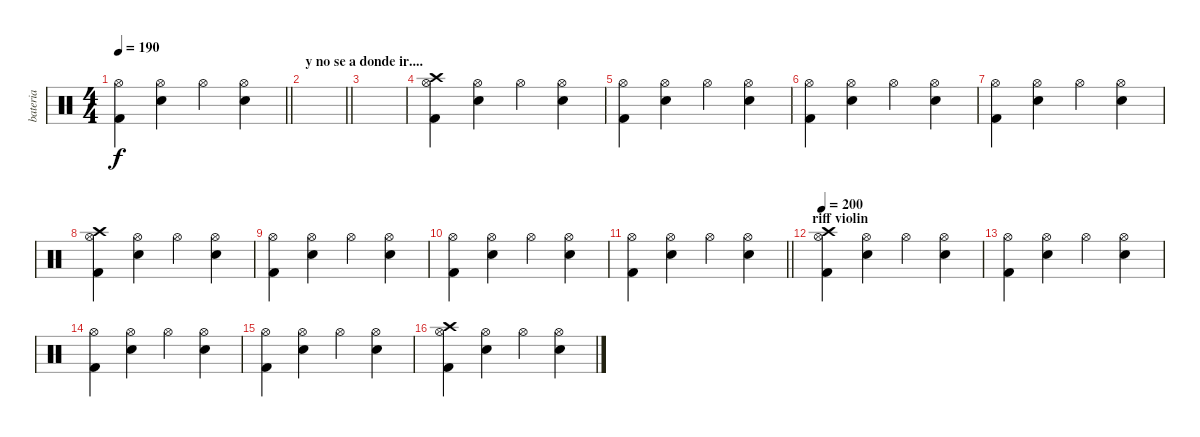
\track ("bateria" "bateria") {instrument percussion}
\staff {score}
\articulation defaults
\ts (4 4)
\tempo 190
\clef neutral
\barLineRight lightlight
\ks c
("Hi-Hat (open)" "Kick (hit) 2").4{dy f} ("Hi-Hat (open)" "Electric Snare (hit)").4 "Hi-Hat (open)".4 ("Hi-Hat (open)" "Electric Snare (hit)").4 |
\section ("" "y no se a donde ir....")
\barLineRight lightlight
|
|
("Hi-Hat (open)" "Kick (hit) 2" "Crash high (hit)").4 ("Hi-Hat (open)" "Electric Snare (hit)").4 "Hi-Hat (open)".4 ("Hi-Hat (open)" "Electric Snare (hit)").4 |
("Hi-Hat (open)" "Kick (hit) 2").4 ("Hi-Hat (open)" "Electric Snare (hit)").4 "Hi-Hat (open)".4 ("Hi-Hat (open)" "Electric Snare (hit)").4 |
("Hi-Hat (open)" "Kick (hit) 2").4 ("Hi-Hat (open)" "Electric Snare (hit)").4 "Hi-Hat (open)".4 ("Hi-Hat (open)" "Electric Snare (hit)").4 |
("Hi-Hat (open)" "Kick (hit) 2").4 ("Hi-Hat (open)" "Electric Snare (hit)").4 "Hi-Hat (open)".4 ("Hi-Hat (open)" "Electric Snare (hit)").4 |
("Hi-Hat (open)" "Kick (hit) 2" "Crash high (hit)").4 ("Hi-Hat (open)" "Electric Snare (hit)").4 "Hi-Hat (open)".4 ("Hi-Hat (open)" "Electric Snare (hit)").4 |
("Hi-Hat (open)" "Kick (hit) 2").4 ("Hi-Hat (open)" "Electric Snare (hit)").4 "Hi-Hat (open)".4 ("Hi-Hat (open)" "Electric Snare (hit)").4 |
("Hi-Hat (open)" "Kick (hit) 2").4 ("Hi-Hat (open)" "Electric Snare (hit)").4 "Hi-Hat (open)".4 ("Hi-Hat (open)" "Electric Snare (hit)").4 |
\barLineRight lightlight
("Hi-Hat (open)" "Kick (hit) 2").4 ("Hi-Hat (open)" "Electric Snare (hit)").4 "Hi-Hat (open)".4 ("Hi-Hat (open)" "Electric Snare (hit)").4 |
\section ("" "riff violin")
\tempo 200
("Hi-Hat (open)" "Kick (hit) 2" "Crash high (hit)").4 ("Hi-Hat (open)" "Electric Snare (hit)").4 "Hi-Hat (open)".4 ("Hi-Hat (open)" "Electric Snare (hit)").4 |
("Hi-Hat (open)" "Kick (hit) 2").4 ("Hi-Hat (open)" "Electric Snare (hit)").4 "Hi-Hat (open)".4 ("Hi-Hat (open)" "Electric Snare (hit)").4 |
("Hi-Hat (open)" "Kick (hit) 2").4 ("Hi-Hat (open)" "Electric Snare (hit)").4 "Hi-Hat (open)".4 ("Hi-Hat (open)" "Electric Snare (hit)").4 |
("Hi-Hat (open)" "Kick (hit) 2").4 ("Hi-Hat (open)" "Electric Snare (hit)").4 "Hi-Hat (open)".4 ("Hi-Hat (open)" "Electric Snare (hit)").4 |
("Hi-Hat (open)" "Kick (hit) 2" "Crash high (hit)").4 ("Hi-Hat (open)" "Electric Snare (hit)").4 "Hi-Hat (open)".4 ("Hi-Hat (open)" "Electric Snare (hit)").4
